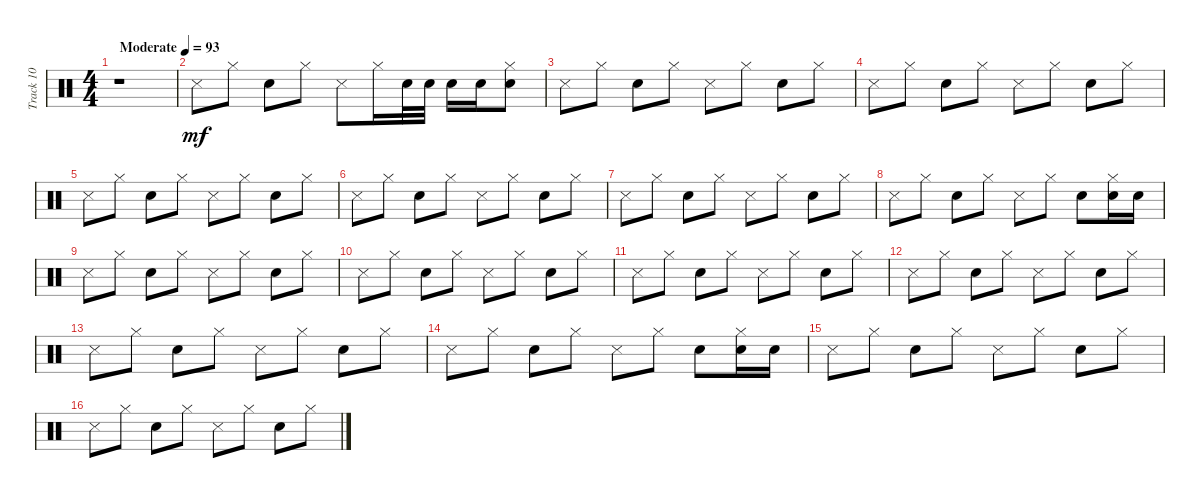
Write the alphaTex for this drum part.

\track ("Track 10" "Track 10") {instrument percussion}
\staff {score}
\articulation defaults
\ts (4 4)
\tempo (93 "Moderate")
\clef neutral
\ks c
r.1{dy mf} |
"Metronome (hit)".8 "Hi-Hat (closed)".8 "Electric Snare (hit)".8 "Hi-Hat (closed)".8 "Metronome (hit)".8 "Hi-Hat (closed)".16 "Electric Snare (hit)".32 "Electric Snare (hit)".32 "Electric Snare (hit)".16 "Electric Snare (hit)".16 ("Electric Snare (hit)" "Hi-Hat (closed)").8 |
"Metronome (hit)".8 "Hi-Hat (closed)".8 "Electric Snare (hit)".8 "Hi-Hat (closed)".8 "Metronome (hit)".8 "Hi-Hat (closed)".8 "Electric Snare (hit)".8 "Hi-Hat (closed)".8 |
"Metronome (hit)".8 "Hi-Hat (closed)".8 "Electric Snare (hit)".8 "Hi-Hat (closed)".8 "Metronome (hit)".8 "Hi-Hat (closed)".8 "Electric Snare (hit)".8 "Hi-Hat (closed)".8 |
"Metronome (hit)".8 "Hi-Hat (closed)".8 "Electric Snare (hit)".8 "Hi-Hat (closed)".8 "Metronome (hit)".8 "Hi-Hat (closed)".8 "Electric Snare (hit)".8 "Hi-Hat (closed)".8 |
"Metronome (hit)".8 "Hi-Hat (closed)".8 "Electric Snare (hit)".8 "Hi-Hat (closed)".8 "Metronome (hit)".8 "Hi-Hat (closed)".8 "Electric Snare (hit)".8 "Hi-Hat (closed)".8 |
"Metronome (hit)".8 "Hi-Hat (closed)".8 "Electric Snare (hit)".8 "Hi-Hat (closed)".8 "Metronome (hit)".8 "Hi-Hat (closed)".8 "Electric Snare (hit)".8 "Hi-Hat (closed)".8 |
"Metronome (hit)".8 "Hi-Hat (closed)".8 "Electric Snare (hit)".8 "Hi-Hat (closed)".8 "Metronome (hit)".8 "Hi-Hat (closed)".8 "Electric Snare (hit)".8 ("Hi-Hat (closed)" "Snare (hit)").16 "Snare (hit)".16 |
"Metronome (hit)".8 "Hi-Hat (closed)".8 "Electric Snare (hit)".8 "Hi-Hat (closed)".8 "Metronome (hit)".8 "Hi-Hat (closed)".8 "Electric Snare (hit)".8 "Hi-Hat (closed)".8 |
"Metronome (hit)".8 "Hi-Hat (closed)".8 "Electric Snare (hit)".8 "Hi-Hat (closed)".8 "Metronome (hit)".8 "Hi-Hat (closed)".8 "Electric Snare (hit)".8 "Hi-Hat (closed)".8 |
"Metronome (hit)".8 "Hi-Hat (closed)".8 "Electric Snare (hit)".8 "Hi-Hat (closed)".8 "Metronome (hit)".8 "Hi-Hat (closed)".8 "Electric Snare (hit)".8 "Hi-Hat (closed)".8 |
"Metronome (hit)".8 "Hi-Hat (closed)".8 "Electric Snare (hit)".8 "Hi-Hat (closed)".8 "Metronome (hit)".8 "Hi-Hat (closed)".8 "Electric Snare (hit)".8 "Hi-Hat (closed)".8 |
"Metronome (hit)".8 "Hi-Hat (closed)".8 "Electric Snare (hit)".8 "Hi-Hat (closed)".8 "Metronome (hit)".8 "Hi-Hat (closed)".8 "Electric Snare (hit)".8 "Hi-Hat (closed)".8 |
"Metronome (hit)".8 "Hi-Hat (closed)".8 "Electric Snare (hit)".8 "Hi-Hat (closed)".8 "Metronome (hit)".8 "Hi-Hat (closed)".8 "Electric Snare (hit)".8 ("Hi-Hat (closed)" "Snare (hit)").16 "Snare (hit)".16 |
"Metronome (hit)".8 "Hi-Hat (closed)".8 "Electric Snare (hit)".8 "Hi-Hat (closed)".8 "Metronome (hit)".8 "Hi-Hat (closed)".8 "Electric Snare (hit)".8 "Hi-Hat (closed)".8 |
"Metronome (hit)".8 "Hi-Hat (closed)".8 "Electric Snare (hit)".8 "Hi-Hat (closed)".8 "Metronome (hit)".8 "Hi-Hat (closed)".8 "Electric Snare (hit)".8 "Hi-Hat (closed)".8
